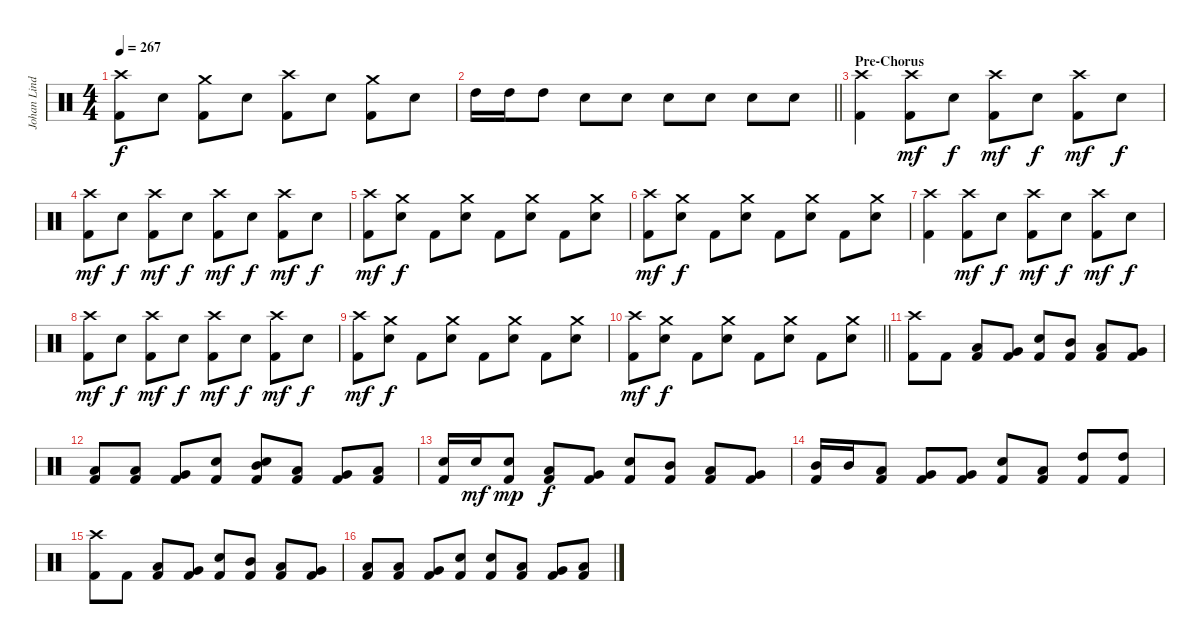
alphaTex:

\track ("Johan Lindstrand" "Johan Lind") {instrument percussion}
\staff {score}
\articulation defaults
\ts (4 4)
\tempo 267
\clef neutral
\ks c
("Crash high (hit)" "Kick (hit) 2").8{dy f} "Electric Snare (hit)".8 ("Crash medium (hit)" "Kick (hit) 2").8 "Electric Snare (hit)".8 ("Crash high (hit)" "Kick (hit) 2").8 "Electric Snare (hit)".8 ("Crash medium (hit)" "Kick (hit) 2").8 "Electric Snare (hit)".8 |
\barLineRight lightlight "High Tom (hit)".16 "High Tom (hit)".16 "High Tom (hit)".8 "Electric Snare (hit)".8 "Electric Snare (hit)".8 "Electric Snare (hit)".8 "Electric Snare (hit)".8 "Electric Snare (hit)".8 "Electric Snare (hit)".8
|
\section ("" "Pre-Chorus")
("Crash high (hit)" "Kick (hit) 2").4 ("Crash high (hit)" "Kick (hit) 2").8{dy mf} "Electric Snare (hit)".8{dy f} ("Crash high (hit)" "Kick (hit) 2").8{dy mf} "Electric Snare (hit)".8{dy f} ("Crash high (hit)" "Kick (hit) 2").8{dy mf} "Electric Snare (hit)".8{dy f} |
("Crash high (hit)" "Kick (hit) 2").8{dy mf} "Electric Snare (hit)".8{dy f} ("Crash high (hit)" "Kick (hit) 2").8{dy mf} "Electric Snare (hit)".8{dy f} ("Crash high (hit)" "Kick (hit) 2").8{dy mf} "Electric Snare (hit)".8{dy f} ("Crash high (hit)" "Kick (hit) 2").8{dy mf} "Electric Snare (hit)".8{dy f} |
("Crash high (hit)" "Kick (hit) 2").8{dy mf} ("Crash medium (hit)" "Electric Snare (hit)").8{dy f} "Kick (hit) 2".8 ("Crash medium (hit)" "Electric Snare (hit)").8 "Kick (hit) 2".8 ("Crash medium (hit)" "Electric Snare (hit)").8 "Kick (hit) 2".8 ("Crash medium (hit)" "Electric Snare (hit)").8 |
("Crash high (hit)" "Kick (hit) 2").8{dy mf} ("Crash medium (hit)" "Electric Snare (hit)").8{dy f} "Kick (hit) 2".8 ("Crash medium (hit)" "Electric Snare (hit)").8 "Kick (hit) 2".8 ("Crash medium (hit)" "Electric Snare (hit)").8 "Kick (hit) 2".8 ("Crash medium (hit)" "Electric Snare (hit)").8 |
("Crash high (hit)" "Kick (hit) 2").4 ("Crash high (hit)" "Kick (hit) 2").8{dy mf} "Electric Snare (hit)".8{dy f} ("Crash high (hit)" "Kick (hit) 2").8{dy mf} "Electric Snare (hit)".8{dy f} ("Crash high (hit)" "Kick (hit) 2").8{dy mf} "Electric Snare (hit)".8{dy f} |
("Crash high (hit)" "Kick (hit) 2").8{dy mf} "Electric Snare (hit)".8{dy f} ("Crash high (hit)" "Kick (hit) 2").8{dy mf} "Electric Snare (hit)".8{dy f} ("Crash high (hit)" "Kick (hit) 2").8{dy mf} "Electric Snare (hit)".8{dy f} ("Crash high (hit)" "Kick (hit) 2").8{dy mf} "Electric Snare (hit)".8{dy f} |
("Crash high (hit)" "Kick (hit) 2").8{dy mf} ("Crash medium (hit)" "Electric Snare (hit)").8{dy f} "Kick (hit) 2".8 ("Crash medium (hit)" "Electric Snare (hit)").8 "Kick (hit) 2".8 ("Crash medium (hit)" "Electric Snare (hit)").8 "Kick (hit) 2".8 ("Crash medium (hit)" "Electric Snare (hit)").8 |
\barLineRight lightlight
("Crash high (hit)" "Kick (hit) 2").8{dy mf} ("Crash medium (hit)" "Electric Snare (hit)").8{dy f} "Kick (hit) 2".8 ("Crash medium (hit)" "Electric Snare (hit)").8 "Kick (hit) 2".8 ("Crash medium (hit)" "Electric Snare (hit)").8 "Kick (hit) 2".8 ("Crash medium (hit)" "Electric Snare (hit)").8 |
\section ("" "")
("Crash high (hit)" "Kick (hit) 2").8 "Kick (hit) 2".8 ("Low Tom (hit)" "Kick (hit) 2").8 ("Very Low Tom (hit)" "Kick (hit) 2").8 ("Electric Snare (hit)" "Kick (hit) 2").8 ("Mid Tom (hit)" "Kick (hit) 2").8 ("Low Tom (hit)" "Kick (hit) 2").8 ("Very Low Tom (hit)" "Kick (hit) 2").8 |
("Low Floor Tom (hit)" "Kick (hit) 2").8 ("Low Tom (hit)" "Kick (hit) 2").8 ("Very Low Tom (hit)" "Kick (hit) 2").8 ("Electric Snare (hit)" "Kick (hit) 2").8 ("Mid Tom (hit)" "Electric Snare (hit)" "Kick (hit) 2").8 ("Low Tom (hit)" "Kick (hit) 2").8 ("Very Low Tom (hit)" "Kick (hit) 2").8 ("Low Floor Tom (hit)" "Kick (hit) 2").8 |
("Electric Snare (hit)" "Kick (hit) 2").16 "Electric Snare (hit)".16{dy mf} ("Electric Snare (hit)" "Kick (hit) 2").8{dy mp} ("Low Tom (hit)" "Kick (hit) 2").8{dy f} ("Very Low Tom (hit)" "Kick (hit) 2").8 ("Electric Snare (hit)" "Kick (hit) 2").8 ("Mid Tom (hit)" "Kick (hit) 2").8 ("Low Tom (hit)" "Kick (hit) 2").8 ("Very Low Tom (hit)" "Kick (hit) 2").8 |
("Mid Tom (hit)" "Kick (hit) 2").16 "Mid Tom (hit)".16 ("Low Tom (hit)" "Kick (hit) 2").8 ("Very Low Tom (hit)" "Kick (hit) 2").8 ("Very Low Tom (hit)" "Kick (hit) 2").8 ("Electric Snare (hit)" "Kick (hit) 2").8 ("Low Tom (hit)" "Kick (hit) 2").8 ("High Tom (hit)" "Kick (hit) 2").8 ("High Tom (hit)" "Kick (hit) 2").8 |
("Crash high (hit)" "Kick (hit) 2").8 "Kick (hit) 2".8 ("Low Tom (hit)" "Kick (hit) 2").8 ("Very Low Tom (hit)" "Kick (hit) 2").8 ("Electric Snare (hit)" "Kick (hit) 2").8 ("Mid Tom (hit)" "Kick (hit) 2").8 ("Low Tom (hit)" "Kick (hit) 2").8 ("Very Low Tom (hit)" "Kick (hit) 2").8 |
("Low Floor Tom (hit)" "Kick (hit) 2").8 ("Low Tom (hit)" "Kick (hit) 2").8 ("Very Low Tom (hit)" "Kick (hit) 2").8 ("Electric Snare (hit)" "Kick (hit) 2").8 ("Electric Snare (hit)" "Kick (hit) 2").8 ("Low Tom (hit)" "Kick (hit) 2").8 ("Very Low Tom (hit)" "Kick (hit) 2").8 ("Low Floor Tom (hit)" "Kick (hit) 2").8
